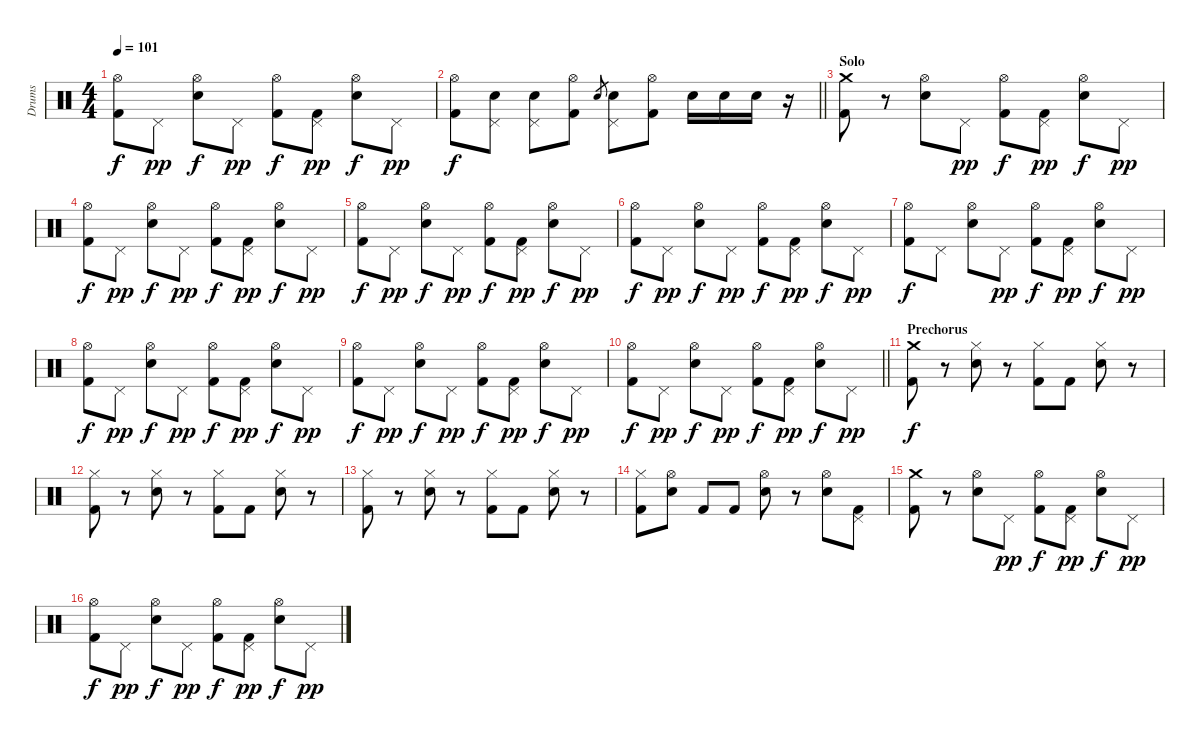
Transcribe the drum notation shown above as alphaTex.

\track ("Drums" "Drums") {instrument percussion}
\staff {score}
\articulation defaults
\ts (4 4)
\tempo 101
\clef neutral
\ks c
("Hi-Hat (open)" "Kick (hit) 2").8{dy f} "Pedal Hi-Hat (hit)".8{dy pp} ("Hi-Hat (open)" "Snare (hit) 2").8{dy f} "Pedal Hi-Hat (hit)".8{dy pp} ("Hi-Hat (open)" "Kick (hit) 2").8{dy f} ("Pedal Hi-Hat (hit)" "Kick (hit) 2").8{dy pp} ("Hi-Hat (open)" "Snare (hit) 2").8{dy f} "Pedal Hi-Hat (hit)".8{dy pp} |
\barLineRight lightlight
("Hi-Hat (open)" "Kick (hit) 2").8{dy f} ("Pedal Hi-Hat (hit)" "Snare (hit) 2").8 ("Pedal Hi-Hat (hit)" "Snare (hit) 2").8 ("Hi-Hat (open)" "Kick (hit) 2").8 "Snare (hit) 2".8{gr} ("Pedal Hi-Hat (hit)" "Snare (hit) 2").8 ("Hi-Hat (open)" "Kick (hit) 2").8 "Snare (hit) 2".16 "Snare (hit) 2".16 "Snare (hit) 2".16 r.16 |
\section ("" "Solo")
("Crash medium (hit)" "Kick (hit) 2").8 r.8 ("Hi-Hat (open)" "Snare (hit) 2").8 "Pedal Hi-Hat (hit)".8{dy pp} ("Hi-Hat (open)" "Kick (hit) 2").8{dy f} ("Pedal Hi-Hat (hit)" "Kick (hit) 2").8{dy pp} ("Hi-Hat (open)" "Snare (hit) 2").8{dy f} "Pedal Hi-Hat (hit)".8{dy pp} |
("Hi-Hat (open)" "Kick (hit) 2").8{dy f} "Pedal Hi-Hat (hit)".8{dy pp} ("Hi-Hat (open)" "Snare (hit) 2").8{dy f} "Pedal Hi-Hat (hit)".8{dy pp} ("Hi-Hat (open)" "Kick (hit) 2").8{dy f} ("Pedal Hi-Hat (hit)" "Kick (hit) 2").8{dy pp} ("Hi-Hat (open)" "Snare (hit) 2").8{dy f} "Pedal Hi-Hat (hit)".8{dy pp} |
("Hi-Hat (open)" "Kick (hit) 2").8{dy f} "Pedal Hi-Hat (hit)".8{dy pp} ("Hi-Hat (open)" "Snare (hit) 2").8{dy f} "Pedal Hi-Hat (hit)".8{dy pp} ("Hi-Hat (open)" "Kick (hit) 2").8{dy f} ("Pedal Hi-Hat (hit)" "Kick (hit) 2").8{dy pp} ("Hi-Hat (open)" "Snare (hit) 2").8{dy f} "Pedal Hi-Hat (hit)".8{dy pp} |
("Hi-Hat (open)" "Kick (hit) 2").8{dy f} "Pedal Hi-Hat (hit)".8{dy pp} ("Hi-Hat (open)" "Snare (hit) 2").8{dy f} "Pedal Hi-Hat (hit)".8{dy pp} ("Hi-Hat (open)" "Kick (hit) 2").8{dy f} ("Pedal Hi-Hat (hit)" "Kick (hit) 2").8{dy pp} ("Hi-Hat (open)" "Snare (hit) 2").8{dy f} "Pedal Hi-Hat (hit)".8{dy pp} |
("Hi-Hat (open)" "Kick (hit) 2").8{dy f} "Pedal Hi-Hat (hit)".8 ("Hi-Hat (open)" "Snare (hit) 2").8 "Pedal Hi-Hat (hit)".8{dy pp} ("Hi-Hat (open)" "Kick (hit) 2").8{dy f} ("Pedal Hi-Hat (hit)" "Kick (hit) 2").8{dy pp} ("Hi-Hat (open)" "Snare (hit) 2").8{dy f} "Pedal Hi-Hat (hit)".8{dy pp} |
("Hi-Hat (open)" "Kick (hit) 2").8{dy f} "Pedal Hi-Hat (hit)".8{dy pp} ("Hi-Hat (open)" "Snare (hit) 2").8{dy f} "Pedal Hi-Hat (hit)".8{dy pp} ("Hi-Hat (open)" "Kick (hit) 2").8{dy f} ("Pedal Hi-Hat (hit)" "Kick (hit) 2").8{dy pp} ("Hi-Hat (open)" "Snare (hit) 2").8{dy f} "Pedal Hi-Hat (hit)".8{dy pp} |
("Hi-Hat (open)" "Kick (hit) 2").8{dy f} "Pedal Hi-Hat (hit)".8{dy pp} ("Hi-Hat (open)" "Snare (hit) 2").8{dy f} "Pedal Hi-Hat (hit)".8{dy pp} ("Hi-Hat (open)" "Kick (hit) 2").8{dy f} ("Pedal Hi-Hat (hit)" "Kick (hit) 2").8{dy pp} ("Hi-Hat (open)" "Snare (hit) 2").8{dy f} "Pedal Hi-Hat (hit)".8{dy pp} |
\barLineRight lightlight
("Hi-Hat (open)" "Kick (hit) 2").8{dy f} "Pedal Hi-Hat (hit)".8{dy pp} ("Hi-Hat (open)" "Snare (hit) 2").8{dy f} "Pedal Hi-Hat (hit)".8{dy pp} ("Hi-Hat (open)" "Kick (hit) 2").8{dy f} ("Pedal Hi-Hat (hit)" "Kick (hit) 2").8{dy pp} ("Hi-Hat (open)" "Snare (hit) 2").8{dy f} "Pedal Hi-Hat (hit)".8{dy pp} |
\section ("" "Prechorus")
("Crash medium (hit)" "Kick (hit) 2").8{dy f} r.8 ("Hi-Hat (closed)" "Snare (hit) 2").8 r.8 ("Hi-Hat (closed)" "Kick (hit) 2").8 "Kick (hit) 2".8 ("Hi-Hat (closed)" "Snare (hit) 2").8 r.8 |
("Hi-Hat (closed)" "Kick (hit) 2").8 r.8 ("Hi-Hat (closed)" "Snare (hit) 2").8 r.8 ("Hi-Hat (closed)" "Kick (hit) 2").8 "Kick (hit) 2".8 ("Hi-Hat (closed)" "Snare (hit) 2").8 r.8 |
("Hi-Hat (closed)" "Kick (hit) 2").8 r.8 ("Hi-Hat (closed)" "Snare (hit) 2").8 r.8 ("Hi-Hat (closed)" "Kick (hit) 2").8 "Kick (hit) 2".8 ("Hi-Hat (closed)" "Snare (hit) 2").8 r.8 |
("Hi-Hat (closed)" "Kick (hit) 2").8 ("Hi-Hat (open)" "Snare (hit) 2").8 "Kick (hit) 2".8 "Kick (hit) 2".8 ("Hi-Hat (open)" "Snare (hit) 2").8 r.8 ("Hi-Hat (open)" "Snare (hit) 2").8 ("Pedal Hi-Hat (hit)" "Kick (hit) 2").8 |
("Crash medium (hit)" "Kick (hit) 2").8 r.8 ("Hi-Hat (open)" "Snare (hit) 2").8 "Pedal Hi-Hat (hit)".8{dy pp} ("Hi-Hat (open)" "Kick (hit) 2").8{dy f} ("Pedal Hi-Hat (hit)" "Kick (hit) 2").8{dy pp} ("Hi-Hat (open)" "Snare (hit) 2").8{dy f} "Pedal Hi-Hat (hit)".8{dy pp} |
("Hi-Hat (open)" "Kick (hit) 2").8{dy f} "Pedal Hi-Hat (hit)".8{dy pp} ("Hi-Hat (open)" "Snare (hit) 2").8{dy f} "Pedal Hi-Hat (hit)".8{dy pp} ("Hi-Hat (open)" "Kick (hit) 2").8{dy f} ("Pedal Hi-Hat (hit)" "Kick (hit) 2").8{dy pp} ("Hi-Hat (open)" "Snare (hit) 2").8{dy f} "Pedal Hi-Hat (hit)".8{dy pp}
